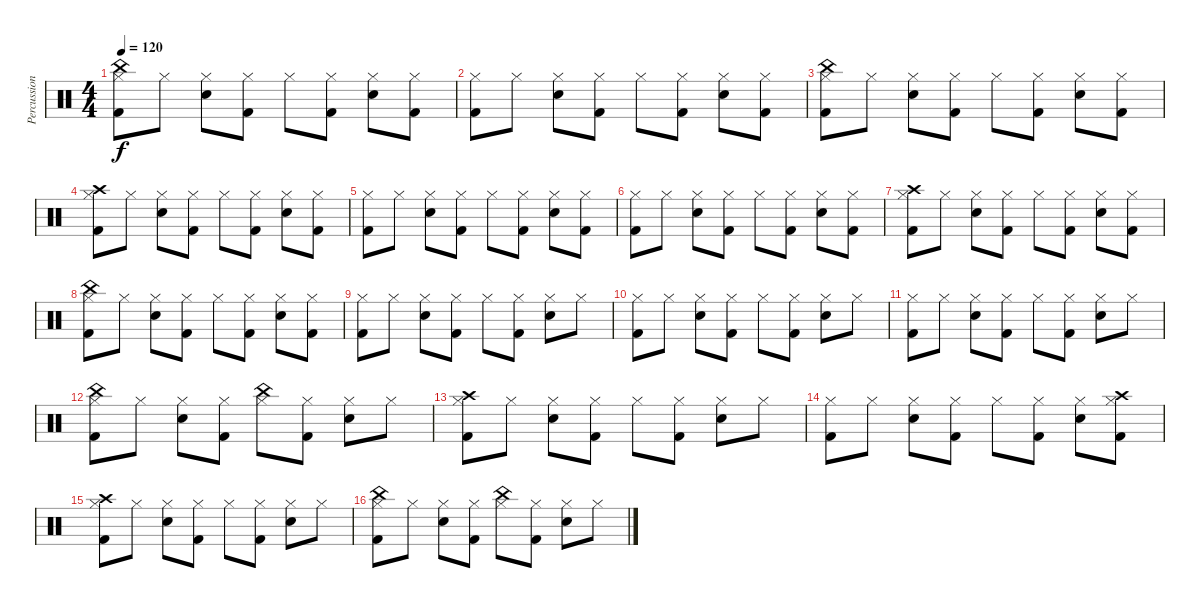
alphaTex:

\track ("Percussion" "Percussion") {instrument percussion}
\staff {score}
\articulation defaults
\ts (4 4)
\tempo 120
\clef neutral
\ks c
("China (hit)" "Hi-Hat (closed)" "Kick (hit) 2").8{dy f} "Hi-Hat (closed)".8 ("Hi-Hat (closed)" "Snare (hit) 2").8 ("Hi-Hat (closed)" "Kick (hit) 2").8 "Hi-Hat (closed)".8 ("Hi-Hat (closed)" "Kick (hit) 2").8 ("Hi-Hat (closed)" "Snare (hit) 2").8 ("Hi-Hat (closed)" "Kick (hit) 2").8 |
("Hi-Hat (closed)" "Kick (hit) 2").8 "Hi-Hat (closed)".8 ("Hi-Hat (closed)" "Snare (hit) 2").8 ("Hi-Hat (closed)" "Kick (hit) 2").8 "Hi-Hat (closed)".8 ("Hi-Hat (closed)" "Kick (hit) 2").8 ("Hi-Hat (closed)" "Snare (hit) 2").8 ("Hi-Hat (closed)" "Kick (hit) 2").8 |
("China (hit)" "Hi-Hat (closed)" "Kick (hit) 2").8 "Hi-Hat (closed)".8 ("Hi-Hat (closed)" "Snare (hit) 2").8 ("Hi-Hat (closed)" "Kick (hit) 2").8 "Hi-Hat (closed)".8 ("Hi-Hat (closed)" "Kick (hit) 2").8 ("Hi-Hat (closed)" "Snare (hit) 2").8 ("Hi-Hat (closed)" "Kick (hit) 2").8 |
("Crash high (hit)" "Hi-Hat (closed)" "Kick (hit) 2").8 "Hi-Hat (closed)".8 ("Hi-Hat (closed)" "Snare (hit) 2").8 ("Hi-Hat (closed)" "Kick (hit) 2").8 "Hi-Hat (closed)".8 ("Hi-Hat (closed)" "Kick (hit) 2").8 ("Hi-Hat (closed)" "Snare (hit) 2").8 ("Hi-Hat (closed)" "Kick (hit) 2").8 |
("Hi-Hat (closed)" "Kick (hit) 2").8 "Hi-Hat (closed)".8 ("Hi-Hat (closed)" "Snare (hit) 2").8 ("Hi-Hat (closed)" "Kick (hit) 2").8 "Hi-Hat (closed)".8 ("Hi-Hat (closed)" "Kick (hit) 2").8 ("Hi-Hat (closed)" "Snare (hit) 2").8 ("Hi-Hat (closed)" "Kick (hit) 2").8 |
("Hi-Hat (closed)" "Kick (hit) 2").8 "Hi-Hat (closed)".8 ("Hi-Hat (closed)" "Snare (hit) 2").8 ("Hi-Hat (closed)" "Kick (hit) 2").8 "Hi-Hat (closed)".8 ("Hi-Hat (closed)" "Kick (hit) 2").8 ("Hi-Hat (closed)" "Snare (hit) 2").8 ("Hi-Hat (closed)" "Kick (hit) 2").8 |
("Crash high (hit)" "Hi-Hat (closed)" "Kick (hit) 2").8 "Hi-Hat (closed)".8 ("Hi-Hat (closed)" "Snare (hit) 2").8 ("Hi-Hat (closed)" "Kick (hit) 2").8 "Hi-Hat (closed)".8 ("Hi-Hat (closed)" "Kick (hit) 2").8 ("Hi-Hat (closed)" "Snare (hit) 2").8 ("Hi-Hat (closed)" "Kick (hit) 2").8 |
("China (hit)" "Hi-Hat (closed)" "Kick (hit) 2").8 "Hi-Hat (closed)".8 ("Hi-Hat (closed)" "Snare (hit) 2").8 ("Hi-Hat (closed)" "Kick (hit) 2").8 "Hi-Hat (closed)".8 ("Hi-Hat (closed)" "Kick (hit) 2").8 ("Hi-Hat (closed)" "Snare (hit) 2").8 ("Hi-Hat (closed)" "Kick (hit) 2").8 |
("Hi-Hat (closed)" "Kick (hit) 2").8 "Hi-Hat (closed)".8 ("Hi-Hat (closed)" "Snare (hit) 2").8 ("Hi-Hat (closed)" "Kick (hit) 2").8 "Hi-Hat (closed)".8 ("Hi-Hat (closed)" "Kick (hit) 2").8 ("Hi-Hat (closed)" "Snare (hit) 2").8 "Hi-Hat (closed)".8 |
("Hi-Hat (closed)" "Kick (hit) 2").8 "Hi-Hat (closed)".8 ("Hi-Hat (closed)" "Snare (hit) 2").8 ("Hi-Hat (closed)" "Kick (hit) 2").8 "Hi-Hat (closed)".8 ("Hi-Hat (closed)" "Kick (hit) 2").8 ("Hi-Hat (closed)" "Snare (hit) 2").8 "Hi-Hat (closed)".8 |
("Hi-Hat (closed)" "Kick (hit) 2").8 "Hi-Hat (closed)".8 ("Hi-Hat (closed)" "Snare (hit) 2").8 ("Hi-Hat (closed)" "Kick (hit) 2").8 "Hi-Hat (closed)".8 ("Hi-Hat (closed)" "Kick (hit) 2").8 ("Hi-Hat (closed)" "Snare (hit) 2").8 "Hi-Hat (closed)".8 |
("China (hit)" "Hi-Hat (closed)" "Kick (hit) 2").8 "Hi-Hat (closed)".8 ("Hi-Hat (closed)" "Snare (hit) 2").8 ("Hi-Hat (closed)" "Kick (hit) 2").8 ("China (hit)" "Hi-Hat (closed)").8 ("Hi-Hat (closed)" "Kick (hit) 2").8 ("Hi-Hat (closed)" "Snare (hit) 2").8 "Hi-Hat (closed)".8 |
("Crash high (hit)" "Hi-Hat (closed)" "Kick (hit) 2").8 "Hi-Hat (closed)".8 ("Hi-Hat (closed)" "Snare (hit) 2").8 ("Hi-Hat (closed)" "Kick (hit) 2").8 "Hi-Hat (closed)".8 ("Hi-Hat (closed)" "Kick (hit) 2").8 ("Hi-Hat (closed)" "Snare (hit) 2").8 "Hi-Hat (closed)".8 |
("Hi-Hat (closed)" "Kick (hit) 2").8 "Hi-Hat (closed)".8 ("Hi-Hat (closed)" "Snare (hit) 2").8 ("Hi-Hat (closed)" "Kick (hit) 2").8 "Hi-Hat (closed)".8 ("Hi-Hat (closed)" "Kick (hit) 2").8 ("Hi-Hat (closed)" "Snare (hit) 2").8 ("Crash high (hit)" "Hi-Hat (closed)" "Kick (hit) 2").8 |
("Crash high (hit)" "Hi-Hat (closed)" "Kick (hit) 2").8 "Hi-Hat (closed)".8 ("Hi-Hat (closed)" "Snare (hit) 2").8 ("Hi-Hat (closed)" "Kick (hit) 2").8 "Hi-Hat (closed)".8 ("Hi-Hat (closed)" "Kick (hit) 2").8 ("Hi-Hat (closed)" "Snare (hit) 2").8 "Hi-Hat (closed)".8 |
("China (hit)" "Hi-Hat (closed)" "Kick (hit) 2").8 "Hi-Hat (closed)".8 ("Hi-Hat (closed)" "Snare (hit) 2").8 ("Hi-Hat (closed)" "Kick (hit) 2").8 ("China (hit)" "Hi-Hat (closed)").8 ("Hi-Hat (closed)" "Kick (hit) 2").8 ("Hi-Hat (closed)" "Snare (hit) 2").8 "Hi-Hat (closed)".8
